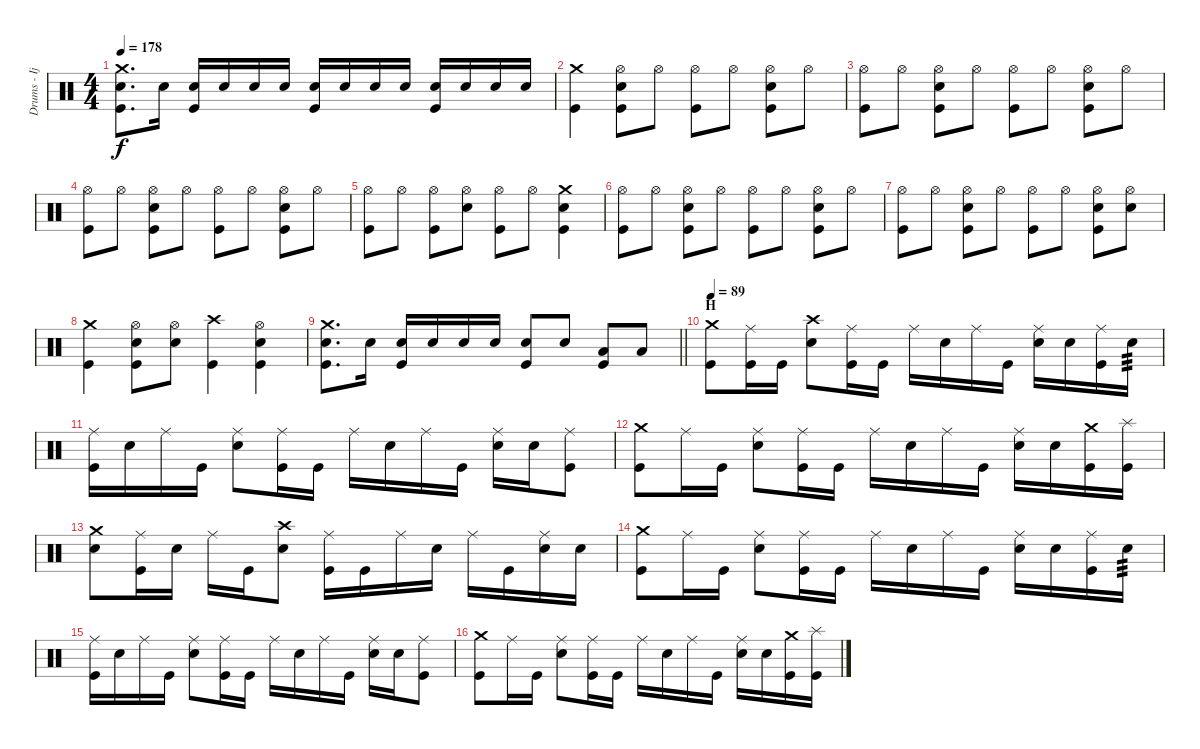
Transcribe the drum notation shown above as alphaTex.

\track ("Drums - Ijichi" "Drums - Ij") {instrument percussion}
\staff {score}
\articulation defaults
\ts (4 4)
\tempo 178
\clef neutral
\ks c
("Crash medium (hit)" "Electric Snare (hit)" "Kick (hit)").8{d dy f} "Electric Snare (hit)".16 ("Electric Snare (hit)" "Kick (hit)").16 "Electric Snare (hit)".16 "Electric Snare (hit)".16 "Electric Snare (hit)".16 ("Electric Snare (hit)" "Kick (hit)").16 "Electric Snare (hit)".16 "Electric Snare (hit)".16 "Electric Snare (hit)".16 ("Electric Snare (hit)" "Kick (hit)").16 "Electric Snare (hit)".16 "Electric Snare (hit)".16 "Electric Snare (hit)".16 |
("Crash medium (hit)" "Kick (hit)").4 ("Hi-Hat (open)" "Electric Snare (hit)" "Kick (hit)").8 "Hi-Hat (open)".8 ("Hi-Hat (open)" "Kick (hit)").8 "Hi-Hat (open)".8 ("Hi-Hat (open)" "Electric Snare (hit)" "Kick (hit)").8 "Hi-Hat (open)".8 |
("Hi-Hat (open)" "Kick (hit)").8 "Hi-Hat (open)".8 ("Hi-Hat (open)" "Electric Snare (hit)" "Kick (hit)").8 "Hi-Hat (open)".8 ("Hi-Hat (open)" "Kick (hit)").8 "Hi-Hat (open)".8 ("Hi-Hat (open)" "Electric Snare (hit)" "Kick (hit)").8 "Hi-Hat (open)".8 |
("Hi-Hat (open)" "Kick (hit)").8 "Hi-Hat (open)".8 ("Hi-Hat (open)" "Electric Snare (hit)" "Kick (hit)").8 "Hi-Hat (open)".8 ("Hi-Hat (open)" "Kick (hit)").8 "Hi-Hat (open)".8 ("Hi-Hat (open)" "Electric Snare (hit)" "Kick (hit)").8 "Hi-Hat (open)".8 |
("Hi-Hat (open)" "Kick (hit)").8 "Hi-Hat (open)".8 ("Hi-Hat (open)" "Kick (hit)").8 ("Hi-Hat (open)" "Electric Snare (hit)").8 ("Hi-Hat (open)" "Kick (hit)").8 "Hi-Hat (open)".8 ("Crash medium (hit)" "Electric Snare (hit)" "Kick (hit)").4 |
("Hi-Hat (open)" "Kick (hit)").8 "Hi-Hat (open)".8 ("Hi-Hat (open)" "Electric Snare (hit)" "Kick (hit)").8 "Hi-Hat (open)".8 ("Hi-Hat (open)" "Kick (hit)").8 "Hi-Hat (open)".8 ("Hi-Hat (open)" "Electric Snare (hit)" "Kick (hit)").8 "Hi-Hat (open)".8 |
("Hi-Hat (open)" "Kick (hit)").8 "Hi-Hat (open)".8 ("Hi-Hat (open)" "Electric Snare (hit)" "Kick (hit)").8 "Hi-Hat (open)".8 ("Hi-Hat (open)" "Kick (hit)").8 "Hi-Hat (open)".8 ("Hi-Hat (open)" "Electric Snare (hit)" "Kick (hit)").8 ("Hi-Hat (open)" "Electric Snare (hit)").8 |
("Crash medium (hit)" "Kick (hit)").4 ("Hi-Hat (open)" "Electric Snare (hit)" "Kick (hit)").8 ("Hi-Hat (open)" "Electric Snare (hit)").8 ("Crash high (hit)" "Kick (hit)").4 ("Hi-Hat (open)" "Electric Snare (hit)" "Kick (hit)").4 |
\barLineRight lightlight
("Crash medium (hit)" "Electric Snare (hit)" "Kick (hit)").8{d} "Electric Snare (hit)".16 ("Electric Snare (hit)" "Kick (hit)").16 "Electric Snare (hit)".16 "Electric Snare (hit)".16 "Electric Snare (hit)".16 ("Electric Snare (hit)" "Kick (hit)").8 "Electric Snare (hit)".8 ("Low Tom (hit)" "Kick (hit)").8 "Low Tom (hit)".8 |
\section ("" "H")
\tempo 89
("Crash medium (hit)" "Kick (hit)").8 ("Ride (middle)" "Kick (hit)").16 "Kick (hit)".16 ("Crash high (hit)" "Electric Snare (hit)").8 ("Ride (middle)" "Kick (hit)").16 "Kick (hit)".16 "Ride (middle)".16 "Electric Snare (hit)".16 "Ride (middle)".16 "Kick (hit)".16 ("Ride (middle)" "Electric Snare (hit)").16 "Electric Snare (hit)".16 ("Ride (middle)" "Kick (hit)").16 "Electric Snare (hit)".16{tp 3} |
("Ride (middle)" "Kick (hit)").16 "Electric Snare (hit)".16 "Ride (middle)".16 "Kick (hit)".16 ("Ride (middle)" "Electric Snare (hit)").8 ("Ride (middle)" "Kick (hit)").16 "Kick (hit)".16 "Ride (middle)".16 "Electric Snare (hit)".16 "Ride (middle)".16 "Kick (hit)".16 ("Ride (middle)" "Electric Snare (hit)").16 "Electric Snare (hit)".16 ("Ride (middle)" "Kick (hit)").8 |
("Crash medium (hit)" "Kick (hit)").8 "Ride (middle)".16 "Kick (hit)".16 ("Ride (middle)" "Electric Snare (hit)").8 ("Ride (middle)" "Kick (hit)").16 "Kick (hit)".16 "Ride (middle)".16 "Electric Snare (hit)".16 "Ride (middle)".16 "Kick (hit)".16 ("Ride (middle)" "Electric Snare (hit)").16 "Electric Snare (hit)".16 ("Crash medium (hit)" "Kick (hit)").16 ("Splash (hit)" "Kick (hit)").16 |
("Crash medium (hit)" "Electric Snare (hit)").8 ("Ride (middle)" "Kick (hit)").16 "Electric Snare (hit)".16 "Ride (middle)".16 "Kick (hit)".16 ("Crash high (hit)" "Electric Snare (hit)").8 ("Ride (middle)" "Kick (hit)").16 "Kick (hit)".16 "Ride (middle)".16 "Electric Snare (hit)".16 "Ride (middle)".16 "Kick (hit)".16 ("Ride (middle)" "Electric Snare (hit)").16 "Electric Snare (hit)".16 |
("Crash medium (hit)" "Kick (hit)").8 "Ride (middle)".16 "Kick (hit)".16 ("Ride (middle)" "Electric Snare (hit)").8 ("Ride (middle)" "Kick (hit)").16 "Kick (hit)".16 "Ride (middle)".16 "Electric Snare (hit)".16 "Ride (middle)".16 "Kick (hit)".16 ("Ride (middle)" "Electric Snare (hit)").16 "Electric Snare (hit)".16 ("Ride (middle)" "Kick (hit)").16 "Electric Snare (hit)".16{tp 3} |
("Ride (middle)" "Kick (hit)").16 "Electric Snare (hit)".16 "Ride (middle)".16 "Kick (hit)".16 ("Ride (middle)" "Electric Snare (hit)").8 ("Ride (middle)" "Kick (hit)").16 "Kick (hit)".16 "Ride (middle)".16 "Electric Snare (hit)".16 "Ride (middle)".16 "Kick (hit)".16 ("Ride (middle)" "Electric Snare (hit)").16 "Electric Snare (hit)".16 ("Ride (middle)" "Kick (hit)").8 |
("Crash medium (hit)" "Kick (hit)").8 "Ride (middle)".16 "Kick (hit)".16 ("Ride (middle)" "Electric Snare (hit)").8 ("Ride (middle)" "Kick (hit)").16 "Kick (hit)".16 "Ride (middle)".16 "Electric Snare (hit)".16 "Ride (middle)".16 "Kick (hit)".16 ("Ride (middle)" "Electric Snare (hit)").16 "Electric Snare (hit)".16 ("Crash medium (hit)" "Kick (hit)").16 ("Splash (hit)" "Kick (hit)").16
